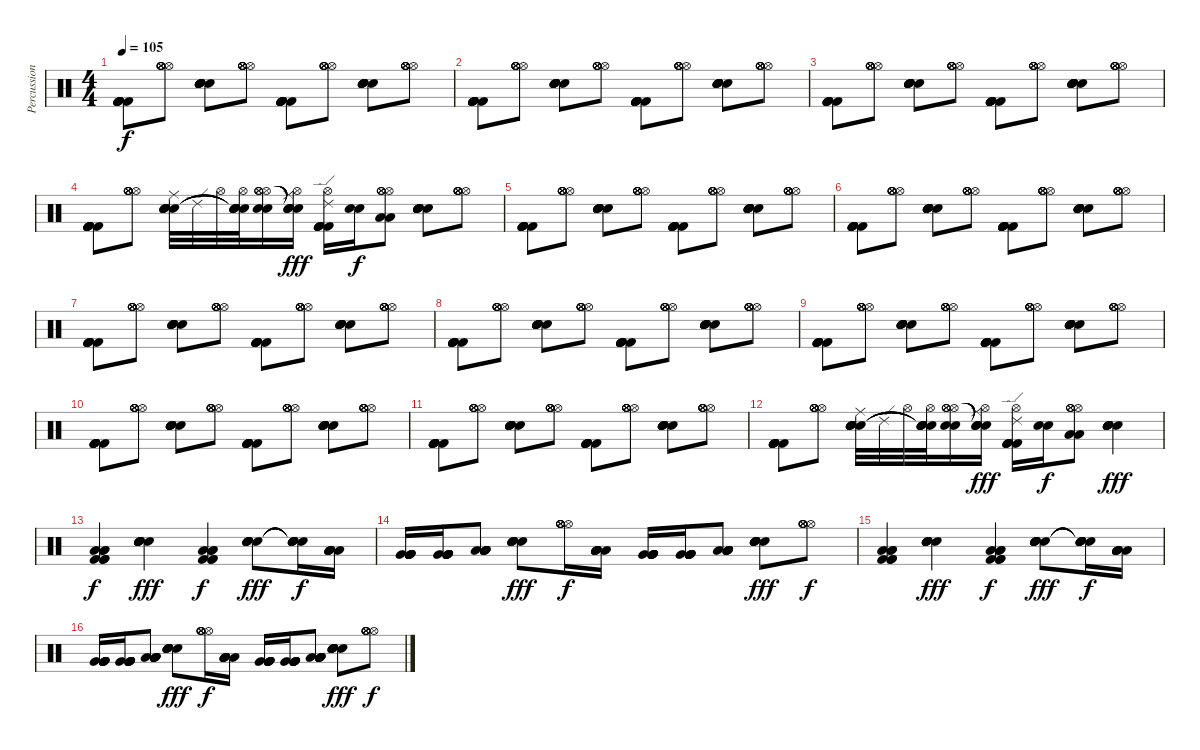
\track ("Percussion" "Percussion") {instrument percussion}
\staff {score}
\articulation defaults
\ts (4 4)
\tempo 105
\clef neutral
\ks c
("Kick (hit) 2" "Kick (hit) 2" "Kick (hit) 2" "Kick (hit) 2" "Kick (hit) 2" "Kick (hit) 2").8{dy f} ("Hi-Hat (open)" "Hi-Hat (open)" "Hi-Hat (open)" "Hi-Hat (open)" "Hi-Hat (open)" "Hi-Hat (open)").8 ("Electric Snare (hit)" "Electric Snare (hit)" "Electric Snare (hit)" "Electric Snare (hit)" "Electric Snare (hit)" "Electric Snare (hit)").8 ("Hi-Hat (open)" "Hi-Hat (open)" "Hi-Hat (open)" "Hi-Hat (open)" "Hi-Hat (open)" "Hi-Hat (open)").8 ("Kick (hit) 2" "Kick (hit) 2" "Kick (hit) 2" "Kick (hit) 2" "Kick (hit) 2" "Kick (hit) 2").8 ("Hi-Hat (open)" "Hi-Hat (open)" "Hi-Hat (open)" "Hi-Hat (open)" "Hi-Hat (open)" "Hi-Hat (open)").8 ("Electric Snare (hit)" "Electric Snare (hit)" "Electric Snare (hit)" "Electric Snare (hit)" "Electric Snare (hit)" "Electric Snare (hit)").8 ("Hi-Hat (open)" "Hi-Hat (open)" "Hi-Hat (open)" "Hi-Hat (open)" "Hi-Hat (open)" "Hi-Hat (open)").8 |
("Kick (hit) 2" "Kick (hit) 2" "Kick (hit) 2" "Kick (hit) 2" "Kick (hit) 2" "Kick (hit) 2").8 ("Hi-Hat (open)" "Hi-Hat (open)" "Hi-Hat (open)" "Hi-Hat (open)" "Hi-Hat (open)" "Hi-Hat (open)").8 ("Electric Snare (hit)" "Electric Snare (hit)" "Electric Snare (hit)" "Electric Snare (hit)" "Electric Snare (hit)" "Electric Snare (hit)").8 ("Hi-Hat (open)" "Hi-Hat (open)" "Hi-Hat (open)" "Hi-Hat (open)" "Hi-Hat (open)" "Hi-Hat (open)").8 ("Kick (hit) 2" "Kick (hit) 2" "Kick (hit) 2" "Kick (hit) 2" "Kick (hit) 2" "Kick (hit) 2").8 ("Hi-Hat (open)" "Hi-Hat (open)" "Hi-Hat (open)" "Hi-Hat (open)" "Hi-Hat (open)" "Hi-Hat (open)").8 ("Electric Snare (hit)" "Electric Snare (hit)" "Electric Snare (hit)" "Electric Snare (hit)" "Electric Snare (hit)" "Electric Snare (hit)").8 ("Hi-Hat (open)" "Hi-Hat (open)" "Hi-Hat (open)" "Hi-Hat (open)" "Hi-Hat (open)" "Hi-Hat (open)").8 |
("Kick (hit) 2" "Kick (hit) 2" "Kick (hit) 2" "Kick (hit) 2" "Kick (hit) 2" "Kick (hit) 2").8 ("Hi-Hat (open)" "Hi-Hat (open)" "Hi-Hat (open)" "Hi-Hat (open)" "Hi-Hat (open)" "Hi-Hat (open)").8 ("Electric Snare (hit)" "Electric Snare (hit)" "Electric Snare (hit)" "Electric Snare (hit)" "Electric Snare (hit)" "Electric Snare (hit)").8 ("Hi-Hat (open)" "Hi-Hat (open)" "Hi-Hat (open)" "Hi-Hat (open)" "Hi-Hat (open)" "Hi-Hat (open)").8 ("Kick (hit) 2" "Kick (hit) 2" "Kick (hit) 2" "Kick (hit) 2" "Kick (hit) 2" "Kick (hit) 2").8 ("Hi-Hat (open)" "Hi-Hat (open)" "Hi-Hat (open)" "Hi-Hat (open)" "Hi-Hat (open)" "Hi-Hat (open)").8 ("Electric Snare (hit)" "Electric Snare (hit)" "Electric Snare (hit)" "Electric Snare (hit)" "Electric Snare (hit)" "Electric Snare (hit)").8 ("Hi-Hat (open)" "Hi-Hat (open)" "Hi-Hat (open)" "Hi-Hat (open)" "Hi-Hat (open)" "Hi-Hat (open)").8 |
("Kick (hit) 2" "Kick (hit) 2" "Kick (hit) 2" "Kick (hit) 2" "Kick (hit) 2" "Kick (hit) 2").8 ("Hi-Hat (open)" "Hi-Hat (open)" "Hi-Hat (open)" "Hi-Hat (open)" "Hi-Hat (open)" "Hi-Hat (open)").8 ("Ride (middle)" "Electric Snare (hit)" "Electric Snare (hit)" "Electric Snare (hit)" "Electric Snare (hit)" "Electric Snare (hit)").32 "Ride (edge) 2".32 "Hi-Hat (open)".32 ("Hi-Hat (open)" "Snare (hit)"{t} "Snare (hit)"{t} "Snare (hit)"{t} "Snare (hit)"{t} "Snare (hit)"{t}).32 ("Electric Snare (hit)" "Electric Snare (hit)" "Hi-Hat (open)" "Hi-Hat (open)" "Hi-Hat (open)" "Hi-Hat (open)").16 ("Ride (middle)" "Hi-Hat (open)" "Snare (hit)"{t} "Snare (hit)"{t} "Snare (hit)"{t} "Snare (hit)"{t}).16{dy fff} ("Ride (edge) 2" "Hi-Hat (open)" "Kick (hit) 2" "Kick (hit) 2" "Kick (hit) 2" "Kick (hit) 2").16 ("Electric Snare (hit)" "Electric Snare (hit)").16{dy f} ("Low Tom (hit)" "Low Tom (hit)" "Hi-Hat (open)" "Hi-Hat (open)" "Hi-Hat (open)" "Hi-Hat (open)").8 ("Electric Snare (hit)" "Electric Snare (hit)" "Electric Snare (hit)" "Electric Snare (hit)" "Electric Snare (hit)" "Electric Snare (hit)").8 ("Hi-Hat (open)" "Hi-Hat (open)" "Hi-Hat (open)" "Hi-Hat (open)" "Hi-Hat (open)" "Hi-Hat (open)").8 |
("Kick (hit) 2" "Kick (hit) 2" "Kick (hit) 2" "Kick (hit) 2" "Kick (hit) 2" "Kick (hit) 2").8 ("Hi-Hat (open)" "Hi-Hat (open)" "Hi-Hat (open)" "Hi-Hat (open)" "Hi-Hat (open)" "Hi-Hat (open)").8 ("Electric Snare (hit)" "Electric Snare (hit)" "Electric Snare (hit)" "Electric Snare (hit)" "Electric Snare (hit)" "Electric Snare (hit)").8 ("Hi-Hat (open)" "Hi-Hat (open)" "Hi-Hat (open)" "Hi-Hat (open)" "Hi-Hat (open)" "Hi-Hat (open)").8 ("Kick (hit) 2" "Kick (hit) 2" "Kick (hit) 2" "Kick (hit) 2" "Kick (hit) 2" "Kick (hit) 2").8 ("Hi-Hat (open)" "Hi-Hat (open)" "Hi-Hat (open)" "Hi-Hat (open)" "Hi-Hat (open)" "Hi-Hat (open)").8 ("Electric Snare (hit)" "Electric Snare (hit)" "Electric Snare (hit)" "Electric Snare (hit)" "Electric Snare (hit)" "Electric Snare (hit)").8 ("Hi-Hat (open)" "Hi-Hat (open)" "Hi-Hat (open)" "Hi-Hat (open)" "Hi-Hat (open)" "Hi-Hat (open)").8 |
("Kick (hit) 2" "Kick (hit) 2" "Kick (hit) 2" "Kick (hit) 2" "Kick (hit) 2" "Kick (hit) 2").8 ("Hi-Hat (open)" "Hi-Hat (open)" "Hi-Hat (open)" "Hi-Hat (open)" "Hi-Hat (open)" "Hi-Hat (open)").8 ("Electric Snare (hit)" "Electric Snare (hit)" "Electric Snare (hit)" "Electric Snare (hit)" "Electric Snare (hit)" "Electric Snare (hit)").8 ("Hi-Hat (open)" "Hi-Hat (open)" "Hi-Hat (open)" "Hi-Hat (open)" "Hi-Hat (open)" "Hi-Hat (open)").8 ("Kick (hit) 2" "Kick (hit) 2" "Kick (hit) 2" "Kick (hit) 2" "Kick (hit) 2" "Kick (hit) 2").8 ("Hi-Hat (open)" "Hi-Hat (open)" "Hi-Hat (open)" "Hi-Hat (open)" "Hi-Hat (open)" "Hi-Hat (open)").8 ("Electric Snare (hit)" "Electric Snare (hit)" "Electric Snare (hit)" "Electric Snare (hit)" "Electric Snare (hit)" "Electric Snare (hit)").8 ("Hi-Hat (open)" "Hi-Hat (open)" "Hi-Hat (open)" "Hi-Hat (open)" "Hi-Hat (open)" "Hi-Hat (open)").8 |
("Kick (hit) 2" "Kick (hit) 2" "Kick (hit) 2" "Kick (hit) 2" "Kick (hit) 2" "Kick (hit) 2").8 ("Hi-Hat (open)" "Hi-Hat (open)" "Hi-Hat (open)" "Hi-Hat (open)" "Hi-Hat (open)" "Hi-Hat (open)").8 ("Electric Snare (hit)" "Electric Snare (hit)" "Electric Snare (hit)" "Electric Snare (hit)" "Electric Snare (hit)" "Electric Snare (hit)").8 ("Hi-Hat (open)" "Hi-Hat (open)" "Hi-Hat (open)" "Hi-Hat (open)" "Hi-Hat (open)" "Hi-Hat (open)").8 ("Kick (hit) 2" "Kick (hit) 2" "Kick (hit) 2" "Kick (hit) 2" "Kick (hit) 2" "Kick (hit) 2").8 ("Hi-Hat (open)" "Hi-Hat (open)" "Hi-Hat (open)" "Hi-Hat (open)" "Hi-Hat (open)" "Hi-Hat (open)").8 ("Electric Snare (hit)" "Electric Snare (hit)" "Electric Snare (hit)" "Electric Snare (hit)" "Electric Snare (hit)" "Electric Snare (hit)").8 ("Hi-Hat (open)" "Hi-Hat (open)" "Hi-Hat (open)" "Hi-Hat (open)" "Hi-Hat (open)" "Hi-Hat (open)").8 |
("Kick (hit) 2" "Kick (hit) 2" "Kick (hit) 2" "Kick (hit) 2" "Kick (hit) 2" "Kick (hit) 2").8 ("Hi-Hat (open)" "Hi-Hat (open)" "Hi-Hat (open)" "Hi-Hat (open)" "Hi-Hat (open)" "Hi-Hat (open)").8 ("Electric Snare (hit)" "Electric Snare (hit)" "Electric Snare (hit)" "Electric Snare (hit)" "Electric Snare (hit)" "Electric Snare (hit)").8 ("Hi-Hat (open)" "Hi-Hat (open)" "Hi-Hat (open)" "Hi-Hat (open)" "Hi-Hat (open)" "Hi-Hat (open)").8 ("Kick (hit) 2" "Kick (hit) 2" "Kick (hit) 2" "Kick (hit) 2" "Kick (hit) 2" "Kick (hit) 2").8 ("Hi-Hat (open)" "Hi-Hat (open)" "Hi-Hat (open)" "Hi-Hat (open)" "Hi-Hat (open)" "Hi-Hat (open)").8 ("Electric Snare (hit)" "Electric Snare (hit)" "Electric Snare (hit)" "Electric Snare (hit)" "Electric Snare (hit)" "Electric Snare (hit)").8 ("Hi-Hat (open)" "Hi-Hat (open)" "Hi-Hat (open)" "Hi-Hat (open)" "Hi-Hat (open)" "Hi-Hat (open)").8 |
("Kick (hit) 2" "Kick (hit) 2" "Kick (hit) 2" "Kick (hit) 2" "Kick (hit) 2" "Kick (hit) 2").8 ("Hi-Hat (open)" "Hi-Hat (open)" "Hi-Hat (open)" "Hi-Hat (open)" "Hi-Hat (open)" "Hi-Hat (open)").8 ("Electric Snare (hit)" "Electric Snare (hit)" "Electric Snare (hit)" "Electric Snare (hit)" "Electric Snare (hit)" "Electric Snare (hit)").8 ("Hi-Hat (open)" "Hi-Hat (open)" "Hi-Hat (open)" "Hi-Hat (open)" "Hi-Hat (open)" "Hi-Hat (open)").8 ("Kick (hit) 2" "Kick (hit) 2" "Kick (hit) 2" "Kick (hit) 2" "Kick (hit) 2" "Kick (hit) 2").8 ("Hi-Hat (open)" "Hi-Hat (open)" "Hi-Hat (open)" "Hi-Hat (open)" "Hi-Hat (open)" "Hi-Hat (open)").8 ("Electric Snare (hit)" "Electric Snare (hit)" "Electric Snare (hit)" "Electric Snare (hit)" "Electric Snare (hit)" "Electric Snare (hit)").8 ("Hi-Hat (open)" "Hi-Hat (open)" "Hi-Hat (open)" "Hi-Hat (open)" "Hi-Hat (open)" "Hi-Hat (open)").8 |
("Kick (hit) 2" "Kick (hit) 2" "Kick (hit) 2" "Kick (hit) 2" "Kick (hit) 2" "Kick (hit) 2").8 ("Hi-Hat (open)" "Hi-Hat (open)" "Hi-Hat (open)" "Hi-Hat (open)" "Hi-Hat (open)" "Hi-Hat (open)").8 ("Electric Snare (hit)" "Electric Snare (hit)" "Electric Snare (hit)" "Electric Snare (hit)" "Electric Snare (hit)" "Electric Snare (hit)").8 ("Hi-Hat (open)" "Hi-Hat (open)" "Hi-Hat (open)" "Hi-Hat (open)" "Hi-Hat (open)" "Hi-Hat (open)").8 ("Kick (hit) 2" "Kick (hit) 2" "Kick (hit) 2" "Kick (hit) 2" "Kick (hit) 2" "Kick (hit) 2").8 ("Hi-Hat (open)" "Hi-Hat (open)" "Hi-Hat (open)" "Hi-Hat (open)" "Hi-Hat (open)" "Hi-Hat (open)").8 ("Electric Snare (hit)" "Electric Snare (hit)" "Electric Snare (hit)" "Electric Snare (hit)" "Electric Snare (hit)" "Electric Snare (hit)").8 ("Hi-Hat (open)" "Hi-Hat (open)" "Hi-Hat (open)" "Hi-Hat (open)" "Hi-Hat (open)" "Hi-Hat (open)").8 |
("Kick (hit) 2" "Kick (hit) 2" "Kick (hit) 2" "Kick (hit) 2" "Kick (hit) 2" "Kick (hit) 2").8 ("Hi-Hat (open)" "Hi-Hat (open)" "Hi-Hat (open)" "Hi-Hat (open)" "Hi-Hat (open)" "Hi-Hat (open)").8 ("Electric Snare (hit)" "Electric Snare (hit)" "Electric Snare (hit)" "Electric Snare (hit)" "Electric Snare (hit)" "Electric Snare (hit)").8 ("Hi-Hat (open)" "Hi-Hat (open)" "Hi-Hat (open)" "Hi-Hat (open)" "Hi-Hat (open)" "Hi-Hat (open)").8 ("Kick (hit) 2" "Kick (hit) 2" "Kick (hit) 2" "Kick (hit) 2" "Kick (hit) 2" "Kick (hit) 2").8 ("Hi-Hat (open)" "Hi-Hat (open)" "Hi-Hat (open)" "Hi-Hat (open)" "Hi-Hat (open)" "Hi-Hat (open)").8 ("Electric Snare (hit)" "Electric Snare (hit)" "Electric Snare (hit)" "Electric Snare (hit)" "Electric Snare (hit)" "Electric Snare (hit)").8 ("Hi-Hat (open)" "Hi-Hat (open)" "Hi-Hat (open)" "Hi-Hat (open)" "Hi-Hat (open)" "Hi-Hat (open)").8 |
("Kick (hit) 2" "Kick (hit) 2" "Kick (hit) 2" "Kick (hit) 2" "Kick (hit) 2" "Kick (hit) 2").8 ("Hi-Hat (open)" "Hi-Hat (open)" "Hi-Hat (open)" "Hi-Hat (open)" "Hi-Hat (open)" "Hi-Hat (open)").8 ("Ride (middle)" "Electric Snare (hit)" "Electric Snare (hit)" "Electric Snare (hit)" "Electric Snare (hit)" "Electric Snare (hit)").32 "Ride (edge) 2".32 "Hi-Hat (open)".32 ("Hi-Hat (open)" "Snare (hit)"{t} "Snare (hit)"{t} "Snare (hit)"{t} "Snare (hit)"{t} "Snare (hit)"{t}).32 ("Electric Snare (hit)" "Electric Snare (hit)" "Hi-Hat (open)" "Hi-Hat (open)" "Hi-Hat (open)" "Hi-Hat (open)").16 ("Ride (middle)" "Hi-Hat (open)" "Snare (hit)"{t} "Snare (hit)"{t} "Snare (hit)"{t} "Snare (hit)"{t}).16{dy fff} ("Ride (edge) 2" "Hi-Hat (open)" "Kick (hit) 2" "Kick (hit) 2" "Kick (hit) 2" "Kick (hit) 2").16 ("Electric Snare (hit)" "Electric Snare (hit)").16{dy f} ("Low Tom (hit)" "Low Tom (hit)" "Hi-Hat (open)" "Hi-Hat (open)" "Hi-Hat (open)" "Hi-Hat (open)").8 ("Snare (hit) 2" "Snare (hit) 2" "Snare (hit) 2" "Snare (hit) 2" "Snare (hit) 2" "Snare (hit) 2").4{dy fff} |
("Kick (hit) 2" "Low Floor Tom (hit)" "Kick (hit) 2" "Low Floor Tom (hit)" "Kick (hit) 2" "Low Floor Tom (hit)").4{dy f} ("Snare (hit) 2" "Snare (hit) 2" "Snare (hit) 2" "Snare (hit) 2" "Snare (hit) 2" "Snare (hit) 2").4{dy fff} ("Kick (hit) 2" "Low Floor Tom (hit)" "Kick (hit) 2" "Low Floor Tom (hit)" "Kick (hit) 2" "Low Floor Tom (hit)").4{dy f} ("Snare (hit) 2" "Snare (hit) 2" "Snare (hit) 2" "Snare (hit) 2" "Snare (hit) 2" "Snare (hit) 2").8{dy fff} ("Snare (hit)"{t} "Snare (hit)"{t} "Snare (hit)"{t} "Snare (hit)"{t} "Snare (hit)"{t} "Snare (hit)"{t}).16{dy f} ("Low Tom (hit)" "Low Tom (hit)" "Low Tom (hit)" "Low Tom (hit)" "Low Tom (hit)" "Low Tom (hit)").16 |
("Very Low Tom (hit)" "Very Low Tom (hit)" "Very Low Tom (hit)" "Very Low Tom (hit)" "Very Low Tom (hit)" "Very Low Tom (hit)").16 ("Very Low Tom (hit)" "Very Low Tom (hit)" "Very Low Tom (hit)" "Very Low Tom (hit)" "Very Low Tom (hit)" "Very Low Tom (hit)").16 ("Low Floor Tom (hit)" "Low Floor Tom (hit)" "Low Floor Tom (hit)" "Low Floor Tom (hit)" "Low Floor Tom (hit)" "Low Floor Tom (hit)").8 ("Snare (hit) 2" "Snare (hit) 2" "Snare (hit) 2" "Snare (hit) 2" "Snare (hit) 2" "Snare (hit) 2").8{dy fff} ("Hi-Hat (open)" "Hi-Hat (open)" "Hi-Hat (open)" "Hi-Hat (open)" "Hi-Hat (open)" "Hi-Hat (open)").16{dy f} ("Low Tom (hit)" "Low Tom (hit)" "Low Tom (hit)" "Low Tom (hit)" "Low Tom (hit)" "Low Tom (hit)").16 ("Very Low Tom (hit)" "Very Low Tom (hit)" "Very Low Tom (hit)" "Very Low Tom (hit)" "Very Low Tom (hit)" "Very Low Tom (hit)").16 ("Very Low Tom (hit)" "Very Low Tom (hit)" "Very Low Tom (hit)" "Very Low Tom (hit)" "Very Low Tom (hit)" "Very Low Tom (hit)").16 ("Low Floor Tom (hit)" "Low Floor Tom (hit)" "Low Floor Tom (hit)" "Low Floor Tom (hit)" "Low Floor Tom (hit)" "Low Floor Tom (hit)").8 ("Snare (hit) 2" "Snare (hit) 2" "Snare (hit) 2" "Snare (hit) 2" "Snare (hit) 2" "Snare (hit) 2").8{dy fff} ("Hi-Hat (open)" "Hi-Hat (open)" "Hi-Hat (open)" "Hi-Hat (open)" "Hi-Hat (open)" "Hi-Hat (open)").8{dy f} |
("Kick (hit) 2" "Low Floor Tom (hit)" "Kick (hit) 2" "Low Floor Tom (hit)" "Kick (hit) 2" "Low Floor Tom (hit)").4 ("Snare (hit) 2" "Snare (hit) 2" "Snare (hit) 2" "Snare (hit) 2" "Snare (hit) 2" "Snare (hit) 2").4{dy fff} ("Kick (hit) 2" "Low Floor Tom (hit)" "Kick (hit) 2" "Low Floor Tom (hit)" "Kick (hit) 2" "Low Floor Tom (hit)").4{dy f} ("Snare (hit) 2" "Snare (hit) 2" "Snare (hit) 2" "Snare (hit) 2" "Snare (hit) 2" "Snare (hit) 2").8{dy fff} ("Snare (hit)"{t} "Snare (hit)"{t} "Snare (hit)"{t} "Snare (hit)"{t} "Snare (hit)"{t} "Snare (hit)"{t}).16{dy f} ("Low Tom (hit)" "Low Tom (hit)" "Low Tom (hit)" "Low Tom (hit)" "Low Tom (hit)" "Low Tom (hit)").16 |
("Very Low Tom (hit)" "Very Low Tom (hit)" "Very Low Tom (hit)" "Very Low Tom (hit)" "Very Low Tom (hit)" "Very Low Tom (hit)").16 ("Very Low Tom (hit)" "Very Low Tom (hit)" "Very Low Tom (hit)" "Very Low Tom (hit)" "Very Low Tom (hit)" "Very Low Tom (hit)").16 ("Low Floor Tom (hit)" "Low Floor Tom (hit)" "Low Floor Tom (hit)" "Low Floor Tom (hit)" "Low Floor Tom (hit)" "Low Floor Tom (hit)").8 ("Snare (hit) 2" "Snare (hit) 2" "Snare (hit) 2" "Snare (hit) 2" "Snare (hit) 2" "Snare (hit) 2").8{dy fff} ("Hi-Hat (open)" "Hi-Hat (open)" "Hi-Hat (open)" "Hi-Hat (open)" "Hi-Hat (open)" "Hi-Hat (open)").16{dy f} ("Low Tom (hit)" "Low Tom (hit)" "Low Tom (hit)" "Low Tom (hit)" "Low Tom (hit)" "Low Tom (hit)").16 ("Very Low Tom (hit)" "Very Low Tom (hit)" "Very Low Tom (hit)" "Very Low Tom (hit)" "Very Low Tom (hit)" "Very Low Tom (hit)").16 ("Very Low Tom (hit)" "Very Low Tom (hit)" "Very Low Tom (hit)" "Very Low Tom (hit)" "Very Low Tom (hit)" "Very Low Tom (hit)").16 ("Low Floor Tom (hit)" "Low Floor Tom (hit)" "Low Floor Tom (hit)" "Low Floor Tom (hit)" "Low Floor Tom (hit)" "Low Floor Tom (hit)").8 ("Snare (hit) 2" "Snare (hit) 2" "Snare (hit) 2" "Snare (hit) 2" "Snare (hit) 2" "Snare (hit) 2").8{dy fff} ("Hi-Hat (open)" "Hi-Hat (open)" "Hi-Hat (open)" "Hi-Hat (open)" "Hi-Hat (open)" "Hi-Hat (open)").8{dy f}
